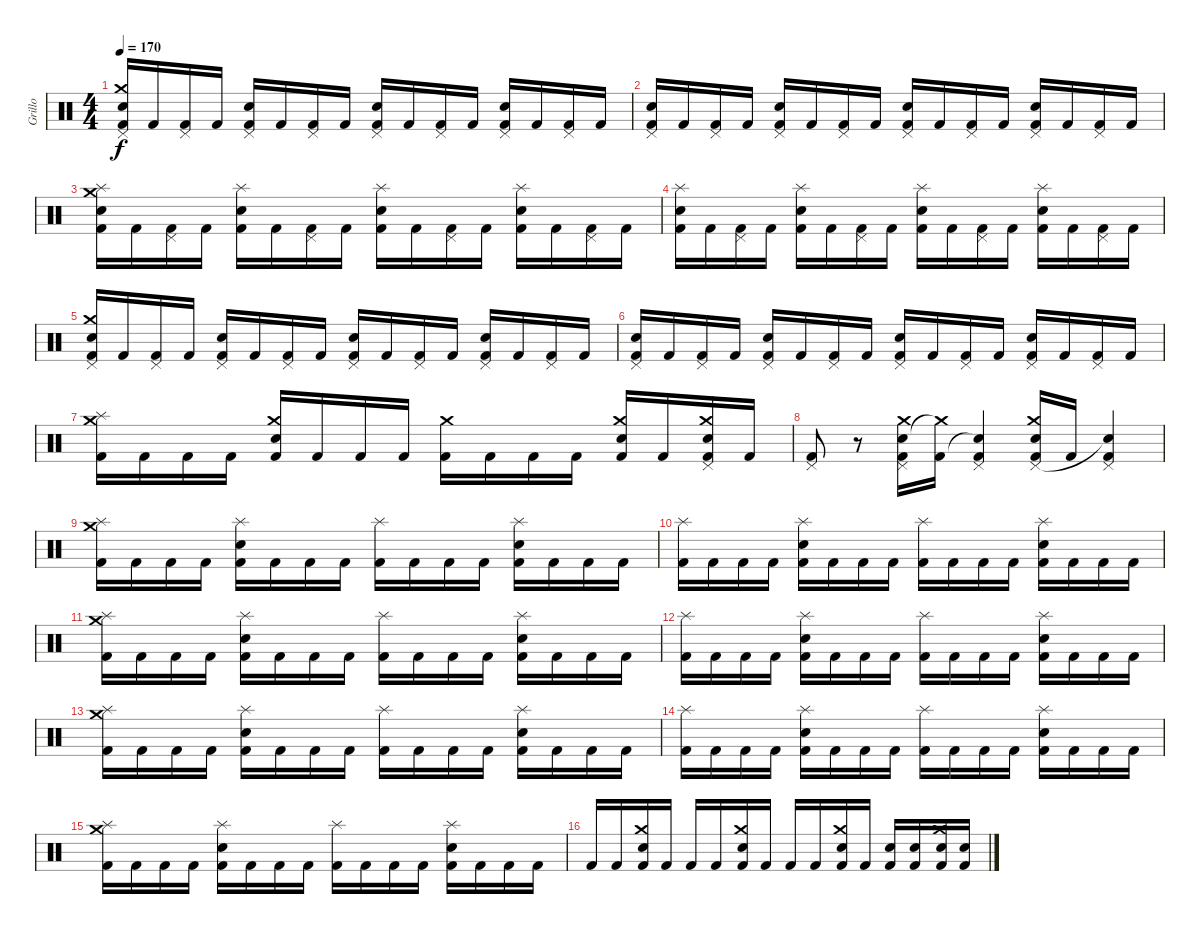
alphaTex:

\track ("Grillo" "Grillo") {instrument percussion}
\staff {score}
\articulation defaults
\ts (4 4)
\tempo 170
\clef neutral
\ks c
("Electric Snare (hit)" "Pedal Hi-Hat (hit)" "Crash medium (hit)" "Kick (hit) 2").16{dy f} "Kick (hit) 2".16 ("Pedal Hi-Hat (hit)" "Kick (hit) 2").16 "Kick (hit) 2".16 ("Electric Snare (hit)" "Pedal Hi-Hat (hit)" "Kick (hit) 2").16 "Kick (hit) 2".16 ("Pedal Hi-Hat (hit)" "Kick (hit) 2").16 "Kick (hit) 2".16 ("Electric Snare (hit)" "Pedal Hi-Hat (hit)" "Kick (hit) 2").16 "Kick (hit) 2".16 ("Pedal Hi-Hat (hit)" "Kick (hit) 2").16 "Kick (hit) 2".16 ("Electric Snare (hit)" "Pedal Hi-Hat (hit)" "Kick (hit) 2").16 "Kick (hit) 2".16 ("Pedal Hi-Hat (hit)" "Kick (hit) 2").16 "Kick (hit) 2".16 |
("Electric Snare (hit)" "Pedal Hi-Hat (hit)" "Kick (hit) 2").16 "Kick (hit) 2".16 ("Pedal Hi-Hat (hit)" "Kick (hit) 2").16 "Kick (hit) 2".16 ("Electric Snare (hit)" "Pedal Hi-Hat (hit)" "Kick (hit) 2").16 "Kick (hit) 2".16 ("Pedal Hi-Hat (hit)" "Kick (hit) 2").16 "Kick (hit) 2".16 ("Electric Snare (hit)" "Pedal Hi-Hat (hit)" "Kick (hit) 2").16 "Kick (hit) 2".16 ("Pedal Hi-Hat (hit)" "Kick (hit) 2").16 "Kick (hit) 2".16 ("Electric Snare (hit)" "Pedal Hi-Hat (hit)" "Kick (hit) 2").16 "Kick (hit) 2".16 ("Pedal Hi-Hat (hit)" "Kick (hit) 2").16 "Kick (hit) 2".16 |
("Electric Snare (hit)" "Splash (hit)" "Crash medium (hit)" "Kick (hit) 2").16 "Kick (hit) 2".16 ("Pedal Hi-Hat (hit)" "Kick (hit) 2").16 "Kick (hit) 2".16 ("Electric Snare (hit)" "Splash (hit)" "Kick (hit) 2").16 "Kick (hit) 2".16 ("Pedal Hi-Hat (hit)" "Kick (hit) 2").16 "Kick (hit) 2".16 ("Electric Snare (hit)" "Splash (hit)" "Kick (hit) 2").16 "Kick (hit) 2".16 ("Pedal Hi-Hat (hit)" "Kick (hit) 2").16 "Kick (hit) 2".16 ("Electric Snare (hit)" "Splash (hit)" "Kick (hit) 2").16 "Kick (hit) 2".16 ("Pedal Hi-Hat (hit)" "Kick (hit) 2").16 "Kick (hit) 2".16 |
("Electric Snare (hit)" "Splash (hit)" "Kick (hit) 2").16 "Kick (hit) 2".16 ("Pedal Hi-Hat (hit)" "Kick (hit) 2").16 "Kick (hit) 2".16 ("Electric Snare (hit)" "Splash (hit)" "Kick (hit) 2").16 "Kick (hit) 2".16 ("Pedal Hi-Hat (hit)" "Kick (hit) 2").16 "Kick (hit) 2".16 ("Electric Snare (hit)" "Splash (hit)" "Kick (hit) 2").16 "Kick (hit) 2".16 ("Pedal Hi-Hat (hit)" "Kick (hit) 2").16 "Kick (hit) 2".16 ("Electric Snare (hit)" "Splash (hit)" "Kick (hit) 2").16 "Kick (hit) 2".16 ("Pedal Hi-Hat (hit)" "Kick (hit) 2").16 "Kick (hit) 2".16 |
("Electric Snare (hit)" "Pedal Hi-Hat (hit)" "Crash medium (hit)" "Kick (hit) 2").16 "Kick (hit) 2".16 ("Pedal Hi-Hat (hit)" "Kick (hit) 2").16 "Kick (hit) 2".16 ("Electric Snare (hit)" "Pedal Hi-Hat (hit)" "Kick (hit) 2").16 "Kick (hit) 2".16 ("Pedal Hi-Hat (hit)" "Kick (hit) 2").16 "Kick (hit) 2".16 ("Electric Snare (hit)" "Pedal Hi-Hat (hit)" "Kick (hit) 2").16 "Kick (hit) 2".16 ("Pedal Hi-Hat (hit)" "Kick (hit) 2").16 "Kick (hit) 2".16 ("Electric Snare (hit)" "Pedal Hi-Hat (hit)" "Kick (hit) 2").16 "Kick (hit) 2".16 ("Pedal Hi-Hat (hit)" "Kick (hit) 2").16 "Kick (hit) 2".16 |
("Electric Snare (hit)" "Pedal Hi-Hat (hit)" "Kick (hit) 2").16 "Kick (hit) 2".16 ("Pedal Hi-Hat (hit)" "Kick (hit) 2").16 "Kick (hit) 2".16 ("Electric Snare (hit)" "Pedal Hi-Hat (hit)" "Kick (hit) 2").16 "Kick (hit) 2".16 ("Pedal Hi-Hat (hit)" "Kick (hit) 2").16 "Kick (hit) 2".16 ("Electric Snare (hit)" "Pedal Hi-Hat (hit)" "Kick (hit) 2").16 "Kick (hit) 2".16 ("Pedal Hi-Hat (hit)" "Kick (hit) 2").16 "Kick (hit) 2".16 ("Electric Snare (hit)" "Pedal Hi-Hat (hit)" "Kick (hit) 2").16 "Kick (hit) 2".16 ("Pedal Hi-Hat (hit)" "Kick (hit) 2").16 "Kick (hit) 2".16 |
("Splash (hit)" "Crash medium (hit)" "Kick (hit) 2").16 "Kick (hit) 2".16 "Kick (hit) 2".16 "Kick (hit) 2".16 ("Electric Snare (hit)" "Crash medium (hit)" "Kick (hit) 2").16 "Kick (hit) 2".16 "Kick (hit) 2".16 "Kick (hit) 2".16 ("Crash medium (hit)" "Kick (hit) 2").16 "Kick (hit) 2".16 "Kick (hit) 2".16 "Kick (hit) 2".16 ("Electric Snare (hit)" "Crash medium (hit)" "Kick (hit) 2").16 "Kick (hit) 2".16 ("Electric Snare (hit)" "Pedal Hi-Hat (hit)" "Crash medium (hit)" "Kick (hit) 2").16 "Kick (hit) 2".16 |
("Pedal Hi-Hat (hit)" "Kick (hit) 2").8 r.8 ("Electric Snare (hit)" "Pedal Hi-Hat (hit)" "Crash medium (hit)" "Kick (hit) 2").16 ("Crash medium (hit)"{t} "Kick (hit) 2").16 ("Pedal Hi-Hat (hit)" "Snare (hit)"{t} "Kick (hit) 2").4 ("Electric Snare (hit)" "Pedal Hi-Hat (hit)" "Crash medium (hit)" "Kick (hit) 2").16 "Kick (hit) 2".16 ("Pedal Hi-Hat (hit)" "Snare (hit)"{t} "Kick (hit) 2").4 |
("Splash (hit)" "Crash medium (hit)" "Kick (hit) 2").16 "Kick (hit) 2".16 "Kick (hit) 2".16 "Kick (hit) 2".16 ("Electric Snare (hit)" "Splash (hit)" "Kick (hit) 2").16 "Kick (hit) 2".16 "Kick (hit) 2".16 "Kick (hit) 2".16 ("Splash (hit)" "Kick (hit) 2").16 "Kick (hit) 2".16 "Kick (hit) 2".16 "Kick (hit) 2".16 ("Electric Snare (hit)" "Splash (hit)" "Kick (hit) 2").16 "Kick (hit) 2".16 "Kick (hit) 2".16 "Kick (hit) 2".16 |
("Splash (hit)" "Kick (hit) 2").16 "Kick (hit) 2".16 "Kick (hit) 2".16 "Kick (hit) 2".16 ("Electric Snare (hit)" "Splash (hit)" "Kick (hit) 2").16 "Kick (hit) 2".16 "Kick (hit) 2".16 "Kick (hit) 2".16 ("Splash (hit)" "Kick (hit) 2").16 "Kick (hit) 2".16 "Kick (hit) 2".16 "Kick (hit) 2".16 ("Electric Snare (hit)" "Splash (hit)" "Kick (hit) 2").16 "Kick (hit) 2".16 "Kick (hit) 2".16 "Kick (hit) 2".16 |
("Splash (hit)" "Crash medium (hit)" "Kick (hit) 2").16 "Kick (hit) 2".16 "Kick (hit) 2".16 "Kick (hit) 2".16 ("Electric Snare (hit)" "Splash (hit)" "Kick (hit) 2").16 "Kick (hit) 2".16 "Kick (hit) 2".16 "Kick (hit) 2".16 ("Splash (hit)" "Kick (hit) 2").16 "Kick (hit) 2".16 "Kick (hit) 2".16 "Kick (hit) 2".16 ("Electric Snare (hit)" "Splash (hit)" "Kick (hit) 2").16 "Kick (hit) 2".16 "Kick (hit) 2".16 "Kick (hit) 2".16 |
("Splash (hit)" "Kick (hit) 2").16 "Kick (hit) 2".16 "Kick (hit) 2".16 "Kick (hit) 2".16 ("Electric Snare (hit)" "Splash (hit)" "Kick (hit) 2").16 "Kick (hit) 2".16 "Kick (hit) 2".16 "Kick (hit) 2".16 ("Splash (hit)" "Kick (hit) 2").16 "Kick (hit) 2".16 "Kick (hit) 2".16 "Kick (hit) 2".16 ("Electric Snare (hit)" "Splash (hit)" "Kick (hit) 2").16 "Kick (hit) 2".16 "Kick (hit) 2".16 "Kick (hit) 2".16 |
("Splash (hit)" "Crash medium (hit)" "Kick (hit) 2").16 "Kick (hit) 2".16 "Kick (hit) 2".16 "Kick (hit) 2".16 ("Electric Snare (hit)" "Splash (hit)" "Kick (hit) 2").16 "Kick (hit) 2".16 "Kick (hit) 2".16 "Kick (hit) 2".16 ("Splash (hit)" "Kick (hit) 2").16 "Kick (hit) 2".16 "Kick (hit) 2".16 "Kick (hit) 2".16 ("Electric Snare (hit)" "Splash (hit)" "Kick (hit) 2").16 "Kick (hit) 2".16 "Kick (hit) 2".16 "Kick (hit) 2".16 |
("Splash (hit)" "Kick (hit) 2").16 "Kick (hit) 2".16 "Kick (hit) 2".16 "Kick (hit) 2".16 ("Electric Snare (hit)" "Splash (hit)" "Kick (hit) 2").16 "Kick (hit) 2".16 "Kick (hit) 2".16 "Kick (hit) 2".16 ("Splash (hit)" "Kick (hit) 2").16 "Kick (hit) 2".16 "Kick (hit) 2".16 "Kick (hit) 2".16 ("Electric Snare (hit)" "Splash (hit)" "Kick (hit) 2").16 "Kick (hit) 2".16 "Kick (hit) 2".16 "Kick (hit) 2".16 |
("Splash (hit)" "Crash medium (hit)" "Kick (hit) 2").16 "Kick (hit) 2".16 "Kick (hit) 2".16 "Kick (hit) 2".16 ("Electric Snare (hit)" "Splash (hit)" "Kick (hit) 2").16 "Kick (hit) 2".16 "Kick (hit) 2".16 "Kick (hit) 2".16 ("Splash (hit)" "Kick (hit) 2").16 "Kick (hit) 2".16 "Kick (hit) 2".16 "Kick (hit) 2".16 ("Electric Snare (hit)" "Splash (hit)" "Kick (hit) 2").16 "Kick (hit) 2".16 "Kick (hit) 2".16 "Kick (hit) 2".16 |
"Kick (hit) 2".16 "Kick (hit) 2".16 ("Electric Snare (hit)" "Crash medium (hit)" "Kick (hit) 2").16 "Kick (hit) 2".16 "Kick (hit) 2".16 "Kick (hit) 2".16 ("Electric Snare (hit)" "Crash medium (hit)" "Kick (hit) 2").16 "Kick (hit) 2".16 "Kick (hit) 2".16 "Kick (hit) 2".16 ("Electric Snare (hit)" "Crash medium (hit)" "Kick (hit) 2").16 "Kick (hit) 2".16 ("Electric Snare (hit)" "Kick (hit) 2").16 ("Electric Snare (hit)" "Kick (hit) 2").16 ("Electric Snare (hit)" "Crash medium (hit)" "Kick (hit) 2").16 ("Electric Snare (hit)" "Kick (hit) 2").16
